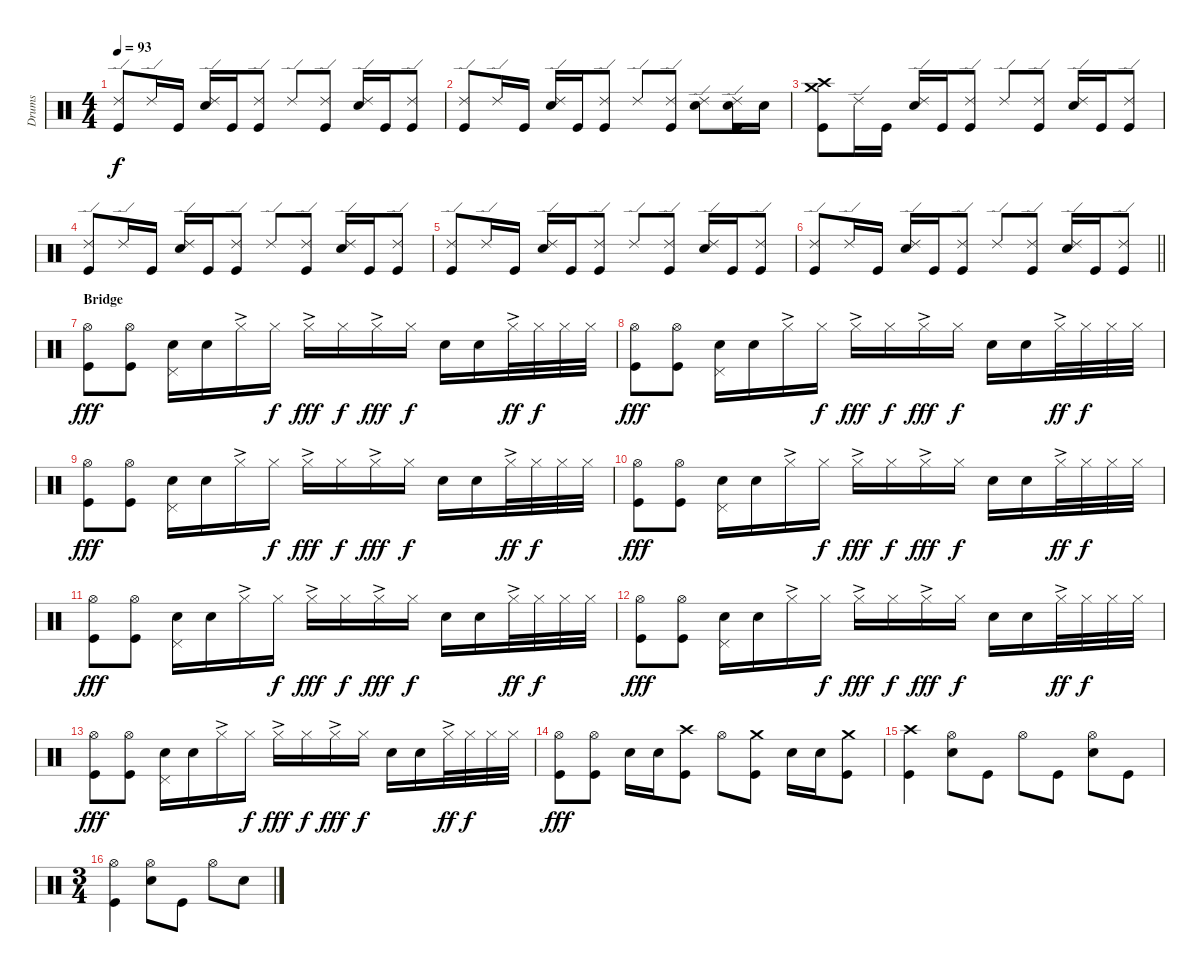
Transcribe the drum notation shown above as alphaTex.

\track ("Drums" "Drums") {instrument percussion}
\staff {score}
\articulation defaults
\ts (4 4)
\tempo 93
\clef neutral
\ks c
("Ride (edge) 2" "Kick (hit)").8{dy f} "Ride (edge) 2".16 "Kick (hit)".16 ("Ride (edge) 2" "Snare (hit) 2").16 "Kick (hit)".16 ("Ride (edge) 2" "Kick (hit)").8 "Ride (edge) 2".8 ("Ride (edge) 2" "Kick (hit)").8 ("Ride (edge) 2" "Snare (hit) 2").16 "Kick (hit)".16 ("Ride (edge) 2" "Kick (hit)").8 |
("Ride (edge) 2" "Kick (hit)").8 "Ride (edge) 2".16 "Kick (hit)".16 ("Ride (edge) 2" "Snare (hit) 2").16 "Kick (hit)".16 ("Ride (edge) 2" "Kick (hit)").8 "Ride (edge) 2".8 ("Ride (edge) 2" "Kick (hit)").8 ("Ride (edge) 2" "Snare (hit) 2").8 ("Ride (edge) 2" "Snare (hit) 2" "Kick (hit)").16 "Snare (hit) 2".16 |
("Crash high (hit)" "Crash medium (hit)" "Kick (hit)").8 "Ride (edge) 2".16 "Kick (hit)".16 ("Ride (edge) 2" "Snare (hit) 2").16 "Kick (hit)".16 ("Ride (edge) 2" "Kick (hit)").8 "Ride (edge) 2".8 ("Ride (edge) 2" "Kick (hit)").8 ("Ride (edge) 2" "Snare (hit) 2").16 "Kick (hit)".16 ("Ride (edge) 2" "Kick (hit)").8 |
("Ride (edge) 2" "Kick (hit)").8 "Ride (edge) 2".16 "Kick (hit)".16 ("Ride (edge) 2" "Snare (hit) 2").16 "Kick (hit)".16 ("Ride (edge) 2" "Kick (hit)").8 "Ride (edge) 2".8 ("Ride (edge) 2" "Kick (hit)").8 ("Ride (edge) 2" "Snare (hit) 2").16 "Kick (hit)".16 ("Ride (edge) 2" "Kick (hit)").8 |
("Ride (edge) 2" "Kick (hit)").8 "Ride (edge) 2".16 "Kick (hit)".16 ("Ride (edge) 2" "Snare (hit) 2").16 "Kick (hit)".16 ("Ride (edge) 2" "Kick (hit)").8 "Ride (edge) 2".8 ("Ride (edge) 2" "Kick (hit)").8 ("Ride (edge) 2" "Snare (hit) 2").16 "Kick (hit)".16 ("Ride (edge) 2" "Kick (hit)").8 |
\barLineRight lightlight
("Ride (edge) 2" "Kick (hit)").8 "Ride (edge) 2".16 "Kick (hit)".16 ("Ride (edge) 2" "Snare (hit) 2").16 "Kick (hit)".16 ("Ride (edge) 2" "Kick (hit)").8 "Ride (edge) 2".8 ("Ride (edge) 2" "Kick (hit)").8 ("Ride (edge) 2" "Snare (hit) 2").16 "Kick (hit)".16 ("Ride (edge) 2" "Kick (hit)").8 |
\section ("" "Bridge")
("Hi-Hat (open)" "Kick (hit)").8{dy fff} ("Hi-Hat (open)" "Kick (hit)").8 ("Pedal Hi-Hat (hit)" "Snare (hit) 2").16 "Snare (hit) 2".16 "Hi-Hat (closed)"{ac}.16 "Hi-Hat (closed)".16{dy f} "Hi-Hat (closed)"{ac}.16{dy fff} "Hi-Hat (closed)".16{dy f} "Hi-Hat (closed)"{ac}.16{dy fff} "Hi-Hat (closed)".16{dy f} "Snare (hit) 2".16 "Snare (hit) 2".16 "Hi-Hat (closed)"{ac}.32{dy ff} "Hi-Hat (closed)".32{dy f} "Hi-Hat (closed)".32 "Hi-Hat (closed)".32 |
("Hi-Hat (open)" "Kick (hit)").8{dy fff} ("Hi-Hat (open)" "Kick (hit)").8 ("Pedal Hi-Hat (hit)" "Snare (hit) 2").16 "Snare (hit) 2".16 "Hi-Hat (closed)"{ac}.16 "Hi-Hat (closed)".16{dy f} "Hi-Hat (closed)"{ac}.16{dy fff} "Hi-Hat (closed)".16{dy f} "Hi-Hat (closed)"{ac}.16{dy fff} "Hi-Hat (closed)".16{dy f} "Snare (hit) 2".16 "Snare (hit) 2".16 "Hi-Hat (closed)"{ac}.32{dy ff} "Hi-Hat (closed)".32{dy f} "Hi-Hat (closed)".32 "Hi-Hat (closed)".32 |
("Hi-Hat (open)" "Kick (hit)").8{dy fff} ("Hi-Hat (open)" "Kick (hit)").8 ("Pedal Hi-Hat (hit)" "Snare (hit) 2").16 "Snare (hit) 2".16 "Hi-Hat (closed)"{ac}.16 "Hi-Hat (closed)".16{dy f} "Hi-Hat (closed)"{ac}.16{dy fff} "Hi-Hat (closed)".16{dy f} "Hi-Hat (closed)"{ac}.16{dy fff} "Hi-Hat (closed)".16{dy f} "Snare (hit) 2".16 "Snare (hit) 2".16 "Hi-Hat (closed)"{ac}.32{dy ff} "Hi-Hat (closed)".32{dy f} "Hi-Hat (closed)".32 "Hi-Hat (closed)".32 |
("Hi-Hat (open)" "Kick (hit)").8{dy fff} ("Hi-Hat (open)" "Kick (hit)").8 ("Pedal Hi-Hat (hit)" "Snare (hit) 2").16 "Snare (hit) 2".16 "Hi-Hat (closed)"{ac}.16 "Hi-Hat (closed)".16{dy f} "Hi-Hat (closed)"{ac}.16{dy fff} "Hi-Hat (closed)".16{dy f} "Hi-Hat (closed)"{ac}.16{dy fff} "Hi-Hat (closed)".16{dy f} "Snare (hit) 2".16 "Snare (hit) 2".16 "Hi-Hat (closed)"{ac}.32{dy ff} "Hi-Hat (closed)".32{dy f} "Hi-Hat (closed)".32 "Hi-Hat (closed)".32 |
("Hi-Hat (open)" "Kick (hit)").8{dy fff} ("Hi-Hat (open)" "Kick (hit)").8 ("Pedal Hi-Hat (hit)" "Snare (hit) 2").16 "Snare (hit) 2".16 "Hi-Hat (closed)"{ac}.16 "Hi-Hat (closed)".16{dy f} "Hi-Hat (closed)"{ac}.16{dy fff} "Hi-Hat (closed)".16{dy f} "Hi-Hat (closed)"{ac}.16{dy fff} "Hi-Hat (closed)".16{dy f} "Snare (hit) 2".16 "Snare (hit) 2".16 "Hi-Hat (closed)"{ac}.32{dy ff} "Hi-Hat (closed)".32{dy f} "Hi-Hat (closed)".32 "Hi-Hat (closed)".32 |
("Hi-Hat (open)" "Kick (hit)").8{dy fff} ("Hi-Hat (open)" "Kick (hit)").8 ("Pedal Hi-Hat (hit)" "Snare (hit) 2").16 "Snare (hit) 2".16 "Hi-Hat (closed)"{ac}.16 "Hi-Hat (closed)".16{dy f} "Hi-Hat (closed)"{ac}.16{dy fff} "Hi-Hat (closed)".16{dy f} "Hi-Hat (closed)"{ac}.16{dy fff} "Hi-Hat (closed)".16{dy f} "Snare (hit) 2".16 "Snare (hit) 2".16 "Hi-Hat (closed)"{ac}.32{dy ff} "Hi-Hat (closed)".32{dy f} "Hi-Hat (closed)".32 "Hi-Hat (closed)".32 |
("Hi-Hat (open)" "Kick (hit)").8{dy fff} ("Hi-Hat (open)" "Kick (hit)").8 ("Pedal Hi-Hat (hit)" "Snare (hit) 2").16 "Snare (hit) 2".16 "Hi-Hat (closed)"{ac}.16 "Hi-Hat (closed)".16{dy f} "Hi-Hat (closed)"{ac}.16{dy fff} "Hi-Hat (closed)".16{dy f} "Hi-Hat (closed)"{ac}.16{dy fff} "Hi-Hat (closed)".16{dy f} "Snare (hit) 2".16 "Snare (hit) 2".16 "Hi-Hat (closed)"{ac}.32{dy ff} "Hi-Hat (closed)".32{dy f} "Hi-Hat (closed)".32 "Hi-Hat (closed)".32 |
("Hi-Hat (open)" "Kick (hit)").8{dy fff} ("Hi-Hat (open)" "Kick (hit)").8 "Snare (hit) 2".16 "Snare (hit) 2".16 ("Crash high (hit)" "Kick (hit)").8 "Hi-Hat (open)".8 ("Crash medium (hit)" "Kick (hit)").8 "Electric Snare (hit)".16 "Electric Snare (hit)".16 ("Crash medium (hit)" "Kick (hit)").8 |
("Crash high (hit)" "Kick (hit)").4 ("Hi-Hat (open)" "Snare (hit) 2").8 "Kick (hit)".8 "Hi-Hat (open)".8 "Kick (hit)".8 ("Hi-Hat (open)" "Snare (hit) 2").8 "Kick (hit)".8 |
\ts (3 4)
("Hi-Hat (open)" "Kick (hit)").4 ("Hi-Hat (open)" "Snare (hit) 2").8 "Kick (hit)".8 "Hi-Hat (open)".8 "Snare (hit) 2".8
